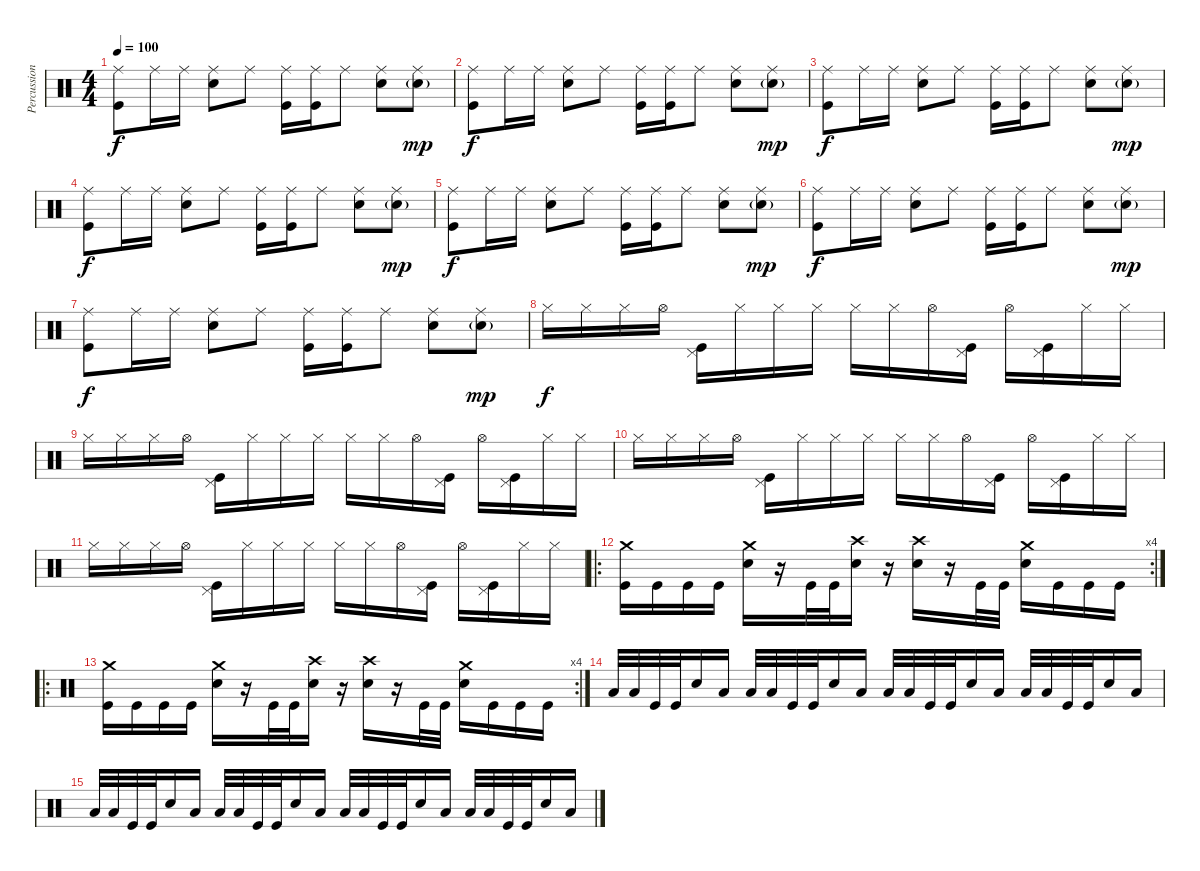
\track ("Percussion" "Percussion") {instrument percussion}
\staff {score}
\articulation defaults
\ts (4 4)
\tempo 100
\clef neutral
\ks c
("Ride (middle)" "Kick (hit)").8{dy f} "Ride (middle)".16 "Ride (middle)".16 ("Ride (middle)" "Snare (hit) 2").8 "Ride (middle)".8 ("Ride (middle)" "Kick (hit)").16 ("Ride (middle)" "Kick (hit)").16 "Ride (middle)".8 ("Ride (middle)" "Snare (hit) 2").8 ("Ride (middle)" "Snare (hit) 2"{g}).8{dy mp} |
("Ride (middle)" "Kick (hit)").8{dy f} "Ride (middle)".16 "Ride (middle)".16 ("Ride (middle)" "Snare (hit) 2").8 "Ride (middle)".8 ("Ride (middle)" "Kick (hit)").16 ("Ride (middle)" "Kick (hit)").16 "Ride (middle)".8 ("Ride (middle)" "Snare (hit) 2").8 ("Ride (middle)" "Snare (hit) 2"{g}).8{dy mp} |
("Ride (middle)" "Kick (hit)").8{dy f} "Ride (middle)".16 "Ride (middle)".16 ("Ride (middle)" "Snare (hit) 2").8 "Ride (middle)".8 ("Ride (middle)" "Kick (hit)").16 ("Ride (middle)" "Kick (hit)").16 "Ride (middle)".8 ("Ride (middle)" "Snare (hit) 2").8 ("Ride (middle)" "Snare (hit) 2"{g}).8{dy mp} |
("Ride (middle)" "Kick (hit)").8{dy f} "Ride (middle)".16 "Ride (middle)".16 ("Ride (middle)" "Snare (hit) 2").8 "Ride (middle)".8 ("Ride (middle)" "Kick (hit)").16 ("Ride (middle)" "Kick (hit)").16 "Ride (middle)".8 ("Ride (middle)" "Snare (hit) 2").8 ("Ride (middle)" "Snare (hit) 2"{g}).8{dy mp} |
("Ride (middle)" "Kick (hit)").8{dy f} "Ride (middle)".16 "Ride (middle)".16 ("Ride (middle)" "Snare (hit) 2").8 "Ride (middle)".8 ("Ride (middle)" "Kick (hit)").16 ("Ride (middle)" "Kick (hit)").16 "Ride (middle)".8 ("Ride (middle)" "Snare (hit) 2").8 ("Ride (middle)" "Snare (hit) 2"{g}).8{dy mp} |
("Ride (middle)" "Kick (hit)").8{dy f} "Ride (middle)".16 "Ride (middle)".16 ("Ride (middle)" "Snare (hit) 2").8 "Ride (middle)".8 ("Ride (middle)" "Kick (hit)").16 ("Ride (middle)" "Kick (hit)").16 "Ride (middle)".8 ("Ride (middle)" "Snare (hit) 2").8 ("Ride (middle)" "Snare (hit) 2"{g}).8{dy mp} |
("Ride (middle)" "Kick (hit)").8{dy f} "Ride (middle)".16 "Ride (middle)".16 ("Ride (middle)" "Snare (hit) 2").8 "Ride (middle)".8 ("Ride (middle)" "Kick (hit)").16 ("Ride (middle)" "Kick (hit)").16 "Ride (middle)".8 ("Ride (middle)" "Snare (hit) 2").8 ("Ride (middle)" "Snare (hit) 2"{g}).8{dy mp} |
"Hi-Hat (closed)".16{dy f} "Hi-Hat (closed)".16 "Hi-Hat (closed)".16 "Hi-Hat (open)".16 ("Pedal Hi-Hat (hit)" "Kick (hit)").16 "Hi-Hat (closed)".16 "Hi-Hat (closed)".16 "Hi-Hat (closed)".16 "Hi-Hat (closed)".16 "Hi-Hat (closed)".16 "Hi-Hat (open)".16 ("Pedal Hi-Hat (hit)" "Kick (hit)").16 "Hi-Hat (open)".16 ("Pedal Hi-Hat (hit)" "Kick (hit)").16 "Hi-Hat (closed)".16 "Hi-Hat (closed)".16 |
"Hi-Hat (closed)".16 "Hi-Hat (closed)".16 "Hi-Hat (closed)".16 "Hi-Hat (open)".16 ("Pedal Hi-Hat (hit)" "Kick (hit)").16 "Hi-Hat (closed)".16 "Hi-Hat (closed)".16 "Hi-Hat (closed)".16 "Hi-Hat (closed)".16 "Hi-Hat (closed)".16 "Hi-Hat (open)".16 ("Pedal Hi-Hat (hit)" "Kick (hit)").16 "Hi-Hat (open)".16 ("Pedal Hi-Hat (hit)" "Kick (hit)").16 "Hi-Hat (closed)".16 "Hi-Hat (closed)".16 |
"Hi-Hat (closed)".16 "Hi-Hat (closed)".16 "Hi-Hat (closed)".16 "Hi-Hat (open)".16 ("Pedal Hi-Hat (hit)" "Kick (hit)").16 "Hi-Hat (closed)".16 "Hi-Hat (closed)".16 "Hi-Hat (closed)".16 "Hi-Hat (closed)".16 "Hi-Hat (closed)".16 "Hi-Hat (open)".16 ("Pedal Hi-Hat (hit)" "Kick (hit)").16 "Hi-Hat (open)".16 ("Pedal Hi-Hat (hit)" "Kick (hit)").16 "Hi-Hat (closed)".16 "Hi-Hat (closed)".16 |
"Hi-Hat (closed)".16 "Hi-Hat (closed)".16 "Hi-Hat (closed)".16 "Hi-Hat (open)".16 ("Pedal Hi-Hat (hit)" "Kick (hit)").16 "Hi-Hat (closed)".16 "Hi-Hat (closed)".16 "Hi-Hat (closed)".16 "Hi-Hat (closed)".16 "Hi-Hat (closed)".16 "Hi-Hat (open)".16 ("Pedal Hi-Hat (hit)" "Kick (hit)").16 "Hi-Hat (open)".16 ("Pedal Hi-Hat (hit)" "Kick (hit)").16 "Hi-Hat (closed)".16 "Hi-Hat (closed)".16 |
\ro
\rc 4
("Crash medium (hit)" "Kick (hit)").16 "Kick (hit)".16 "Kick (hit)".16 "Kick (hit)".16 ("Crash medium (hit)" "Snare (hit) 2").16 r.16 "Kick (hit)".32 "Kick (hit)".32 ("Crash high (hit)" "Snare (hit) 2").16 r.16 ("Crash high (hit)" "Snare (hit) 2").16 r.16 "Kick (hit)".32 "Kick (hit)".32 ("Crash medium (hit)" "Snare (hit) 2").16 "Kick (hit)".16 "Kick (hit)".16 "Kick (hit)".16 |
\ro
\rc 4
("Crash medium (hit)" "Kick (hit)").16 "Kick (hit)".16 "Kick (hit)".16 "Kick (hit)".16 ("Crash medium (hit)" "Snare (hit) 2").16 r.16 "Kick (hit)".32 "Kick (hit)".32 ("Crash high (hit)" "Snare (hit) 2").16 r.16 ("Crash high (hit)" "Snare (hit) 2").16 r.16 "Kick (hit)".32 "Kick (hit)".32 ("Crash medium (hit)" "Snare (hit) 2").16 "Kick (hit)".16 "Kick (hit)".16 "Kick (hit)".16 |
"Low Floor Tom (hit)".32 "Low Floor Tom (hit)".32 "Kick (hit)".32 "Kick (hit)".32 "Snare (hit) 2".16 "Low Floor Tom (hit)".16 "Low Floor Tom (hit)".32 "Low Floor Tom (hit)".32 "Kick (hit)".32 "Kick (hit)".32 "Snare (hit) 2".16 "Low Floor Tom (hit)".16 "Low Floor Tom (hit)".32 "Low Floor Tom (hit)".32 "Kick (hit)".32 "Kick (hit)".32 "Snare (hit) 2".16 "Low Floor Tom (hit)".16 "Low Floor Tom (hit)".32 "Low Floor Tom (hit)".32 "Kick (hit)".32 "Kick (hit)".32 "Snare (hit) 2".16 "Low Floor Tom (hit)".16 |
"Low Floor Tom (hit)".32 "Low Floor Tom (hit)".32 "Kick (hit)".32 "Kick (hit)".32 "Snare (hit) 2".16 "Low Floor Tom (hit)".16 "Low Floor Tom (hit)".32 "Low Floor Tom (hit)".32 "Kick (hit)".32 "Kick (hit)".32 "Snare (hit) 2".16 "Low Floor Tom (hit)".16 "Low Floor Tom (hit)".32 "Low Floor Tom (hit)".32 "Kick (hit)".32 "Kick (hit)".32 "Snare (hit) 2".16 "Low Floor Tom (hit)".16 "Low Floor Tom (hit)".32 "Low Floor Tom (hit)".32 "Kick (hit)".32 "Kick (hit)".32 "Snare (hit) 2".16 "Low Floor Tom (hit)".16
